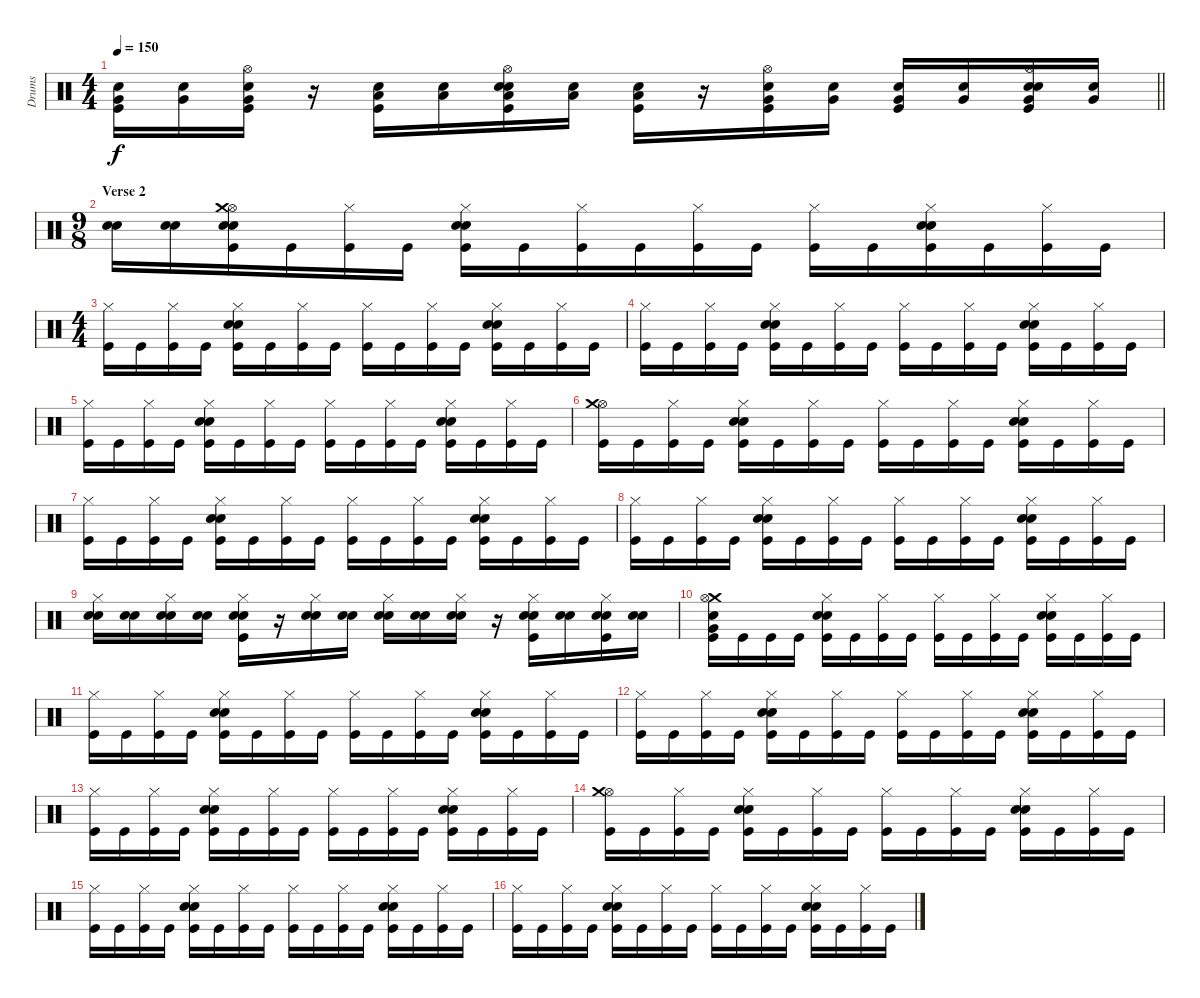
\track ("Drums" "Drums") {instrument percussion}
\staff {score}
\articulation defaults
\ts (4 4)
\tempo 150
\clef neutral
\barLineRight lightlight
\ks c
("Very Low Tom (hit)" "Snare (hit) 2" "Kick (hit)").16{dy f} ("Very Low Tom (hit)" "Snare (hit) 2").16 ("Very Low Tom (hit)" "Snare (hit) 2" "Kick (hit)" "Hi-Hat (open)").16 r.16 ("Low Tom (hit)" "Snare (hit) 2" "Kick (hit)").16 ("Low Tom (hit)" "Snare (hit) 2").16 ("Low Tom (hit)" "Snare (hit) 2" "Electric Snare (hit)" "Kick (hit)" "Hi-Hat (open)").16 ("Low Tom (hit)" "Snare (hit) 2").16 ("Low Tom (hit)" "Snare (hit) 2" "Kick (hit)").16 r.16 ("Very Low Tom (hit)" "Snare (hit) 2" "Kick (hit)" "Hi-Hat (open)").16 ("Very Low Tom (hit)" "Snare (hit) 2").16 ("Very Low Tom (hit)" "Snare (hit) 2" "Kick (hit)").16 ("Very Low Tom (hit)" "Snare (hit) 2").16 ("Very Low Tom (hit)" "Snare (hit) 2" "Electric Snare (hit)" "Kick (hit)" "Hi-Hat (open)").16 ("Very Low Tom (hit)" "Snare (hit) 2").16 |
\ts (9 8)
\section ("" "Verse 2")
("Electric Snare (hit)" "Snare (hit) 2").16 ("Electric Snare (hit)" "Snare (hit) 2").16 ("Electric Snare (hit)" "Snare (hit) 2" "Kick (hit)" "Hi-Hat (open)" "Crash medium (hit)").16 "Kick (hit)".16 ("Kick (hit)" "Hi-Hat (closed)").16 "Kick (hit)".16 ("Snare (hit) 2" "Electric Snare (hit)" "Kick (hit)" "Hi-Hat (closed)").16 "Kick (hit)".16 ("Kick (hit)" "Hi-Hat (closed)").16 "Kick (hit)".16 ("Kick (hit)" "Hi-Hat (closed)").16 "Kick (hit)".16 ("Kick (hit)" "Hi-Hat (closed)").16 "Kick (hit)".16 ("Snare (hit) 2" "Electric Snare (hit)" "Kick (hit)" "Hi-Hat (closed)").16 "Kick (hit)".16 ("Kick (hit)" "Hi-Hat (closed)").16 "Kick (hit)".16 |
\ts (4 4)
("Hi-Hat (closed)" "Kick (hit)").16 "Kick (hit)".16 ("Hi-Hat (closed)" "Kick (hit)").16 "Kick (hit)".16 ("Snare (hit) 2" "Electric Snare (hit)" "Hi-Hat (closed)" "Kick (hit)").16 "Kick (hit)".16 ("Hi-Hat (closed)" "Kick (hit)").16 "Kick (hit)".16 ("Hi-Hat (closed)" "Kick (hit)").16 "Kick (hit)".16 ("Hi-Hat (closed)" "Kick (hit)").16 "Kick (hit)".16 ("Snare (hit) 2" "Electric Snare (hit)" "Hi-Hat (closed)" "Kick (hit)").16 "Kick (hit)".16 ("Hi-Hat (closed)" "Kick (hit)").16 "Kick (hit)".16 |
("Hi-Hat (closed)" "Kick (hit)").16 "Kick (hit)".16 ("Hi-Hat (closed)" "Kick (hit)").16 "Kick (hit)".16 ("Snare (hit) 2" "Electric Snare (hit)" "Hi-Hat (closed)" "Kick (hit)").16 "Kick (hit)".16 ("Hi-Hat (closed)" "Kick (hit)").16 "Kick (hit)".16 ("Hi-Hat (closed)" "Kick (hit)").16 "Kick (hit)".16 ("Hi-Hat (closed)" "Kick (hit)").16 "Kick (hit)".16 ("Snare (hit) 2" "Electric Snare (hit)" "Hi-Hat (closed)" "Kick (hit)").16 "Kick (hit)".16 ("Hi-Hat (closed)" "Kick (hit)").16 "Kick (hit)".16 |
("Hi-Hat (closed)" "Kick (hit)").16 "Kick (hit)".16 ("Hi-Hat (closed)" "Kick (hit)").16 "Kick (hit)".16 ("Snare (hit) 2" "Electric Snare (hit)" "Hi-Hat (closed)" "Kick (hit)").16 "Kick (hit)".16 ("Hi-Hat (closed)" "Kick (hit)").16 "Kick (hit)".16 ("Hi-Hat (closed)" "Kick (hit)").16 "Kick (hit)".16 ("Hi-Hat (closed)" "Kick (hit)").16 "Kick (hit)".16 ("Snare (hit) 2" "Electric Snare (hit)" "Hi-Hat (closed)" "Kick (hit)").16 "Kick (hit)".16 ("Hi-Hat (closed)" "Kick (hit)").16 "Kick (hit)".16 |
("Hi-Hat (open)" "Kick (hit)" "Crash medium (hit)").16 "Kick (hit)".16 ("Hi-Hat (closed)" "Kick (hit)").16 "Kick (hit)".16 ("Snare (hit) 2" "Electric Snare (hit)" "Hi-Hat (closed)" "Kick (hit)").16 "Kick (hit)".16 ("Hi-Hat (closed)" "Kick (hit)").16 "Kick (hit)".16 ("Hi-Hat (closed)" "Kick (hit)").16 "Kick (hit)".16 ("Hi-Hat (closed)" "Kick (hit)").16 "Kick (hit)".16 ("Snare (hit) 2" "Electric Snare (hit)" "Hi-Hat (closed)" "Kick (hit)").16 "Kick (hit)".16 ("Hi-Hat (closed)" "Kick (hit)").16 "Kick (hit)".16 |
("Hi-Hat (closed)" "Kick (hit)").16 "Kick (hit)".16 ("Hi-Hat (closed)" "Kick (hit)").16 "Kick (hit)".16 ("Snare (hit) 2" "Electric Snare (hit)" "Hi-Hat (closed)" "Kick (hit)").16 "Kick (hit)".16 ("Hi-Hat (closed)" "Kick (hit)").16 "Kick (hit)".16 ("Hi-Hat (closed)" "Kick (hit)").16 "Kick (hit)".16 ("Hi-Hat (closed)" "Kick (hit)").16 "Kick (hit)".16 ("Snare (hit) 2" "Electric Snare (hit)" "Hi-Hat (closed)" "Kick (hit)").16 "Kick (hit)".16 ("Hi-Hat (closed)" "Kick (hit)").16 "Kick (hit)".16 |
("Hi-Hat (closed)" "Kick (hit)").16 "Kick (hit)".16 ("Hi-Hat (closed)" "Kick (hit)").16 "Kick (hit)".16 ("Snare (hit) 2" "Electric Snare (hit)" "Hi-Hat (closed)" "Kick (hit)").16 "Kick (hit)".16 ("Hi-Hat (closed)" "Kick (hit)").16 "Kick (hit)".16 ("Hi-Hat (closed)" "Kick (hit)").16 "Kick (hit)".16 ("Hi-Hat (closed)" "Kick (hit)").16 "Kick (hit)".16 ("Snare (hit) 2" "Electric Snare (hit)" "Hi-Hat (closed)" "Kick (hit)").16 "Kick (hit)".16 ("Hi-Hat (closed)" "Kick (hit)").16 "Kick (hit)".16 |
("Snare (hit) 2" "Electric Snare (hit)" "Hi-Hat (closed)").16 ("Snare (hit) 2" "Electric Snare (hit)").16 ("Snare (hit) 2" "Electric Snare (hit)" "Hi-Hat (closed)").16 ("Snare (hit) 2" "Electric Snare (hit)").16 ("Snare (hit) 2" "Electric Snare (hit)" "Hi-Hat (closed)" "Kick (hit)").16 r.16 ("Snare (hit) 2" "Electric Snare (hit)" "Hi-Hat (closed)").16 ("Snare (hit) 2" "Electric Snare (hit)").16 ("Snare (hit) 2" "Electric Snare (hit)" "Hi-Hat (closed)").16 ("Snare (hit) 2" "Electric Snare (hit)").16 ("Snare (hit) 2" "Electric Snare (hit)" "Hi-Hat (closed)").16 r.16 ("Snare (hit) 2" "Electric Snare (hit)" "Hi-Hat (closed)" "Kick (hit)").16 ("Snare (hit) 2" "Electric Snare (hit)").16 ("Snare (hit) 2" "Electric Snare (hit)" "Hi-Hat (closed)" "Kick (hit)").16 ("Snare (hit) 2" "Electric Snare (hit)").16 |
("Very Low Tom (hit)" "Snare (hit) 2" "Kick (hit)" "Crash medium (hit)" "Hi-Hat (open)").16 "Kick (hit)".16 "Kick (hit)".16 "Kick (hit)".16 ("Snare (hit) 2" "Electric Snare (hit)" "Kick (hit)" "Hi-Hat (closed)").16 "Kick (hit)".16 ("Kick (hit)" "Hi-Hat (closed)").16 "Kick (hit)".16 ("Kick (hit)" "Hi-Hat (closed)").16 "Kick (hit)".16 ("Kick (hit)" "Hi-Hat (closed)").16 "Kick (hit)".16 ("Snare (hit) 2" "Electric Snare (hit)" "Kick (hit)" "Hi-Hat (closed)").16 "Kick (hit)".16 ("Kick (hit)" "Hi-Hat (closed)").16 "Kick (hit)".16 |
("Hi-Hat (closed)" "Kick (hit)").16 "Kick (hit)".16 ("Hi-Hat (closed)" "Kick (hit)").16 "Kick (hit)".16 ("Snare (hit) 2" "Electric Snare (hit)" "Hi-Hat (closed)" "Kick (hit)").16 "Kick (hit)".16 ("Hi-Hat (closed)" "Kick (hit)").16 "Kick (hit)".16 ("Hi-Hat (closed)" "Kick (hit)").16 "Kick (hit)".16 ("Hi-Hat (closed)" "Kick (hit)").16 "Kick (hit)".16 ("Snare (hit) 2" "Electric Snare (hit)" "Hi-Hat (closed)" "Kick (hit)").16 "Kick (hit)".16 ("Hi-Hat (closed)" "Kick (hit)").16 "Kick (hit)".16 |
("Hi-Hat (closed)" "Kick (hit)").16 "Kick (hit)".16 ("Hi-Hat (closed)" "Kick (hit)").16 "Kick (hit)".16 ("Snare (hit) 2" "Electric Snare (hit)" "Hi-Hat (closed)" "Kick (hit)").16 "Kick (hit)".16 ("Hi-Hat (closed)" "Kick (hit)").16 "Kick (hit)".16 ("Hi-Hat (closed)" "Kick (hit)").16 "Kick (hit)".16 ("Hi-Hat (closed)" "Kick (hit)").16 "Kick (hit)".16 ("Snare (hit) 2" "Electric Snare (hit)" "Hi-Hat (closed)" "Kick (hit)").16 "Kick (hit)".16 ("Hi-Hat (closed)" "Kick (hit)").16 "Kick (hit)".16 |
("Hi-Hat (closed)" "Kick (hit)").16 "Kick (hit)".16 ("Hi-Hat (closed)" "Kick (hit)").16 "Kick (hit)".16 ("Snare (hit) 2" "Electric Snare (hit)" "Hi-Hat (closed)" "Kick (hit)").16 "Kick (hit)".16 ("Hi-Hat (closed)" "Kick (hit)").16 "Kick (hit)".16 ("Hi-Hat (closed)" "Kick (hit)").16 "Kick (hit)".16 ("Hi-Hat (closed)" "Kick (hit)").16 "Kick (hit)".16 ("Snare (hit) 2" "Electric Snare (hit)" "Hi-Hat (closed)" "Kick (hit)").16 "Kick (hit)".16 ("Hi-Hat (closed)" "Kick (hit)").16 "Kick (hit)".16 |
("Hi-Hat (open)" "Kick (hit)" "Crash medium (hit)").16 "Kick (hit)".16 ("Hi-Hat (closed)" "Kick (hit)").16 "Kick (hit)".16 ("Snare (hit) 2" "Electric Snare (hit)" "Hi-Hat (closed)" "Kick (hit)").16 "Kick (hit)".16 ("Hi-Hat (closed)" "Kick (hit)").16 "Kick (hit)".16 ("Hi-Hat (closed)" "Kick (hit)").16 "Kick (hit)".16 ("Hi-Hat (closed)" "Kick (hit)").16 "Kick (hit)".16 ("Snare (hit) 2" "Electric Snare (hit)" "Hi-Hat (closed)" "Kick (hit)").16 "Kick (hit)".16 ("Hi-Hat (closed)" "Kick (hit)").16 "Kick (hit)".16 |
("Hi-Hat (closed)" "Kick (hit)").16 "Kick (hit)".16 ("Hi-Hat (closed)" "Kick (hit)").16 "Kick (hit)".16 ("Snare (hit) 2" "Electric Snare (hit)" "Hi-Hat (closed)" "Kick (hit)").16 "Kick (hit)".16 ("Hi-Hat (closed)" "Kick (hit)").16 "Kick (hit)".16 ("Hi-Hat (closed)" "Kick (hit)").16 "Kick (hit)".16 ("Hi-Hat (closed)" "Kick (hit)").16 "Kick (hit)".16 ("Snare (hit) 2" "Electric Snare (hit)" "Hi-Hat (closed)" "Kick (hit)").16 "Kick (hit)".16 ("Hi-Hat (closed)" "Kick (hit)").16 "Kick (hit)".16 |
("Hi-Hat (closed)" "Kick (hit)").16 "Kick (hit)".16 ("Hi-Hat (closed)" "Kick (hit)").16 "Kick (hit)".16 ("Snare (hit) 2" "Electric Snare (hit)" "Hi-Hat (closed)" "Kick (hit)").16 "Kick (hit)".16 ("Hi-Hat (closed)" "Kick (hit)").16 "Kick (hit)".16 ("Hi-Hat (closed)" "Kick (hit)").16 "Kick (hit)".16 ("Hi-Hat (closed)" "Kick (hit)").16 "Kick (hit)".16 ("Snare (hit) 2" "Electric Snare (hit)" "Hi-Hat (closed)" "Kick (hit)").16 "Kick (hit)".16 ("Hi-Hat (closed)" "Kick (hit)").16 "Kick (hit)".16
